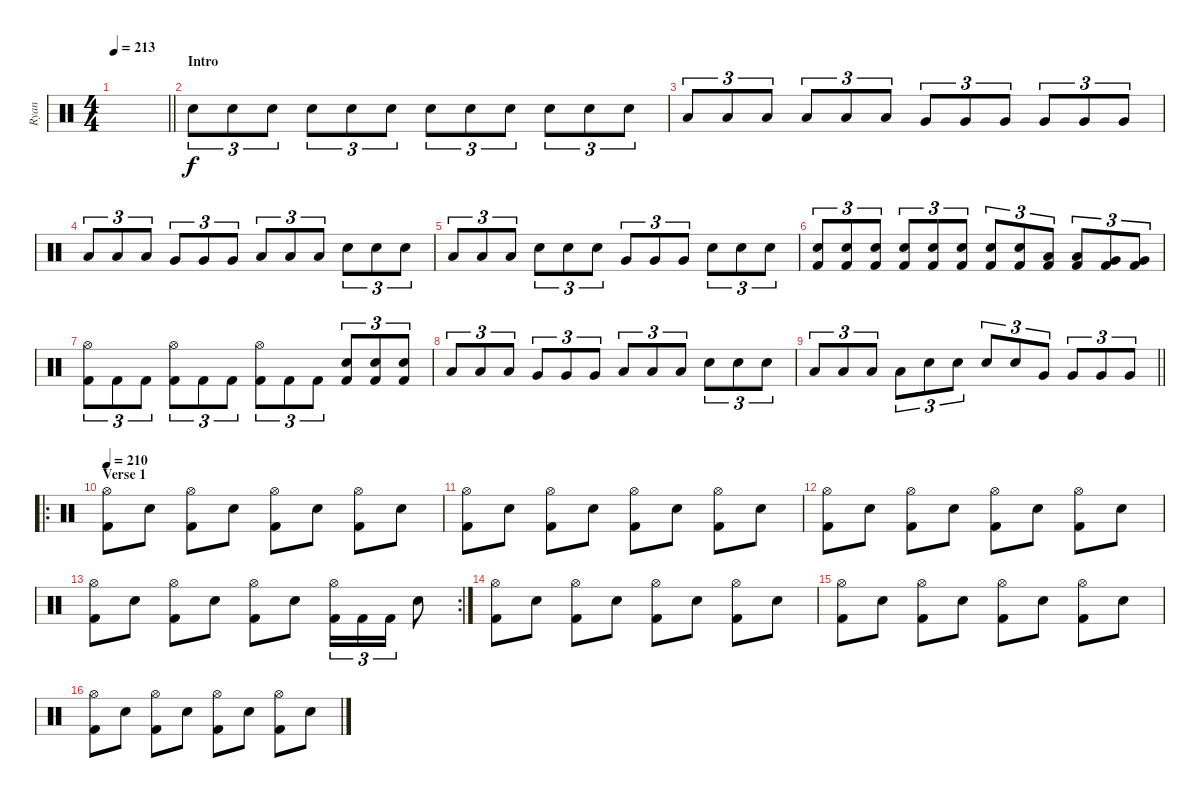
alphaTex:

\track ("Ryan" "Ryan") {instrument percussion}
\staff {score}
\articulation defaults
\ts (4 4)
\tempo 213
\clef neutral
\barLineRight lightlight
\ks c
|
\section ("" "Intro")
"Electric Snare (hit)".8{tu (3 2)} "Electric Snare (hit)".8{tu (3 2)} "Electric Snare (hit)".8{tu (3 2)} "Electric Snare (hit)".8{tu (3 2)} "Electric Snare (hit)".8{tu (3 2)} "Electric Snare (hit)".8{tu (3 2)} "Electric Snare (hit)".8{tu (3 2)} "Electric Snare (hit)".8{tu (3 2)} "Electric Snare (hit)".8{tu (3 2)} "Electric Snare (hit)".8{tu (3 2)} "Electric Snare (hit)".8{tu (3 2)} "Electric Snare (hit)".8{tu (3 2)} |
"Low Floor Tom (hit)".8{tu (3 2)} "Low Floor Tom (hit)".8{tu (3 2)} "Low Floor Tom (hit)".8{tu (3 2)} "Low Floor Tom (hit)".8{tu (3 2)} "Low Floor Tom (hit)".8{tu (3 2)} "Low Floor Tom (hit)".8{tu (3 2)} "Very Low Tom (hit)".8{tu (3 2)} "Very Low Tom (hit)".8{tu (3 2)} "Very Low Tom (hit)".8{tu (3 2)} "Very Low Tom (hit)".8{tu (3 2)} "Very Low Tom (hit)".8{tu (3 2)} "Very Low Tom (hit)".8{tu (3 2)} |
"Low Floor Tom (hit)".8{tu (3 2)} "Low Floor Tom (hit)".8{tu (3 2)} "Low Floor Tom (hit)".8{tu (3 2)} "Very Low Tom (hit)".8{tu (3 2)} "Very Low Tom (hit)".8{tu (3 2)} "Very Low Tom (hit)".8{tu (3 2)} "Low Floor Tom (hit)".8{tu (3 2)} "Low Floor Tom (hit)".8{tu (3 2)} "Low Floor Tom (hit)".8{tu (3 2)} "Electric Snare (hit)".8{tu (3 2)} "Electric Snare (hit)".8{tu (3 2)} "Electric Snare (hit)".8{tu (3 2)} |
"Low Floor Tom (hit)".8{tu (3 2)} "Low Floor Tom (hit)".8{tu (3 2)} "Low Floor Tom (hit)".8{tu (3 2)} "Electric Snare (hit)".8{tu (3 2)} "Electric Snare (hit)".8{tu (3 2)} "Electric Snare (hit)".8{tu (3 2)} "Very Low Tom (hit)".8{tu (3 2)} "Very Low Tom (hit)".8{tu (3 2)} "Very Low Tom (hit)".8{tu (3 2)} "Electric Snare (hit)".8{tu (3 2)} "Electric Snare (hit)".8{tu (3 2)} "Electric Snare (hit)".8{tu (3 2)} |
("Electric Snare (hit)" "Kick (hit) 2").8{tu (3 2)} ("Electric Snare (hit)" "Kick (hit) 2").8{tu (3 2)} ("Electric Snare (hit)" "Kick (hit) 2").8{tu (3 2)} ("Electric Snare (hit)" "Kick (hit) 2").8{tu (3 2)} ("Electric Snare (hit)" "Kick (hit) 2").8{tu (3 2)} ("Electric Snare (hit)" "Kick (hit) 2").8{tu (3 2)} ("Electric Snare (hit)" "Kick (hit) 2").8{tu (3 2)} ("Electric Snare (hit)" "Kick (hit) 2").8{tu (3 2)} ("Low Floor Tom (hit)" "Kick (hit) 2").8{tu (3 2)} ("Low Floor Tom (hit)" "Kick (hit) 2").8{tu (3 2)} ("Very Low Tom (hit)" "Kick (hit) 2").8{tu (3 2)} ("Very Low Tom (hit)" "Kick (hit) 2").8{tu (3 2)} |
("Hi-Hat (open)" "Kick (hit) 2").8{tu (3 2)} "Kick (hit) 2".8{tu (3 2)} "Kick (hit) 2".8{tu (3 2)} ("Hi-Hat (open)" "Kick (hit) 2").8{tu (3 2)} "Kick (hit) 2".8{tu (3 2)} "Kick (hit) 2".8{tu (3 2)} ("Hi-Hat (open)" "Kick (hit) 2").8{tu (3 2)} "Kick (hit) 2".8{tu (3 2)} "Kick (hit) 2".8{tu (3 2)} ("Electric Snare (hit)" "Kick (hit) 2").8{tu (3 2)} ("Electric Snare (hit)" "Kick (hit) 2").8{tu (3 2)} ("Electric Snare (hit)" "Kick (hit) 2").8{tu (3 2)} |
"Low Floor Tom (hit)".8{tu (3 2)} "Low Floor Tom (hit)".8{tu (3 2)} "Low Floor Tom (hit)".8{tu (3 2)} "Very Low Tom (hit)".8{tu (3 2)} "Very Low Tom (hit)".8{tu (3 2)} "Very Low Tom (hit)".8{tu (3 2)} "Low Floor Tom (hit)".8{tu (3 2)} "Low Floor Tom (hit)".8{tu (3 2)} "Low Floor Tom (hit)".8{tu (3 2)} "Electric Snare (hit)".8{tu (3 2)} "Electric Snare (hit)".8{tu (3 2)} "Electric Snare (hit)".8{tu (3 2)} |
\barLineRight lightlight "Low Floor Tom (hit)".8{tu (3 2)} "Low Floor Tom (hit)".8{tu (3 2)} "Low Floor Tom (hit)".8{tu (3 2)} "Low Floor Tom (hit)".8{tu (3 2)} "Electric Snare (hit)".8{tu (3 2)} "Electric Snare (hit)".8{tu (3 2)} "Electric Snare (hit)".8{tu (3 2)} "Electric Snare (hit)".8{tu (3 2)} "Very Low Tom (hit)".8{tu (3 2)} "Very Low Tom (hit)".8{tu (3 2)} "Very Low Tom (hit)".8{tu (3 2)} "Very Low Tom (hit)".8{tu (3 2)}
|
\ro
\section ("" "Verse 1")
\tempo 210
("Hi-Hat (open)" "Kick (hit) 2").8 "Electric Snare (hit)".8 ("Hi-Hat (open)" "Kick (hit) 2").8 "Electric Snare (hit)".8 ("Hi-Hat (open)" "Kick (hit) 2").8 "Electric Snare (hit)".8 ("Hi-Hat (open)" "Kick (hit) 2").8 "Electric Snare (hit)".8 |
("Hi-Hat (open)" "Kick (hit) 2").8 "Electric Snare (hit)".8 ("Hi-Hat (open)" "Kick (hit) 2").8 "Electric Snare (hit)".8 ("Hi-Hat (open)" "Kick (hit) 2").8 "Electric Snare (hit)".8 ("Hi-Hat (open)" "Kick (hit) 2").8 "Electric Snare (hit)".8 |
("Hi-Hat (open)" "Kick (hit) 2").8 "Electric Snare (hit)".8 ("Hi-Hat (open)" "Kick (hit) 2").8 "Electric Snare (hit)".8 ("Hi-Hat (open)" "Kick (hit) 2").8 "Electric Snare (hit)".8 ("Hi-Hat (open)" "Kick (hit) 2").8 "Electric Snare (hit)".8 |
\rc 2
("Hi-Hat (open)" "Kick (hit) 2").8 "Electric Snare (hit)".8 ("Hi-Hat (open)" "Kick (hit) 2").8 "Electric Snare (hit)".8 ("Hi-Hat (open)" "Kick (hit) 2").8 "Electric Snare (hit)".8 ("Hi-Hat (open)" "Kick (hit) 2").16{tu (3 2)} "Kick (hit) 2".16{tu (3 2)} "Kick (hit) 2".16{tu (3 2)} "Electric Snare (hit)".8 |
("Hi-Hat (open)" "Kick (hit) 2").8 "Electric Snare (hit)".8 ("Hi-Hat (open)" "Kick (hit) 2").8 "Electric Snare (hit)".8 ("Hi-Hat (open)" "Kick (hit) 2").8 "Electric Snare (hit)".8 ("Hi-Hat (open)" "Kick (hit) 2").8 "Electric Snare (hit)".8 |
("Hi-Hat (open)" "Kick (hit) 2").8 "Electric Snare (hit)".8 ("Hi-Hat (open)" "Kick (hit) 2").8 "Electric Snare (hit)".8 ("Hi-Hat (open)" "Kick (hit) 2").8 "Electric Snare (hit)".8 ("Hi-Hat (open)" "Kick (hit) 2").8 "Electric Snare (hit)".8 |
("Hi-Hat (open)" "Kick (hit) 2").8 "Electric Snare (hit)".8 ("Hi-Hat (open)" "Kick (hit) 2").8 "Electric Snare (hit)".8 ("Hi-Hat (open)" "Kick (hit) 2").8 "Electric Snare (hit)".8 ("Hi-Hat (open)" "Kick (hit) 2").8 "Electric Snare (hit)".8
